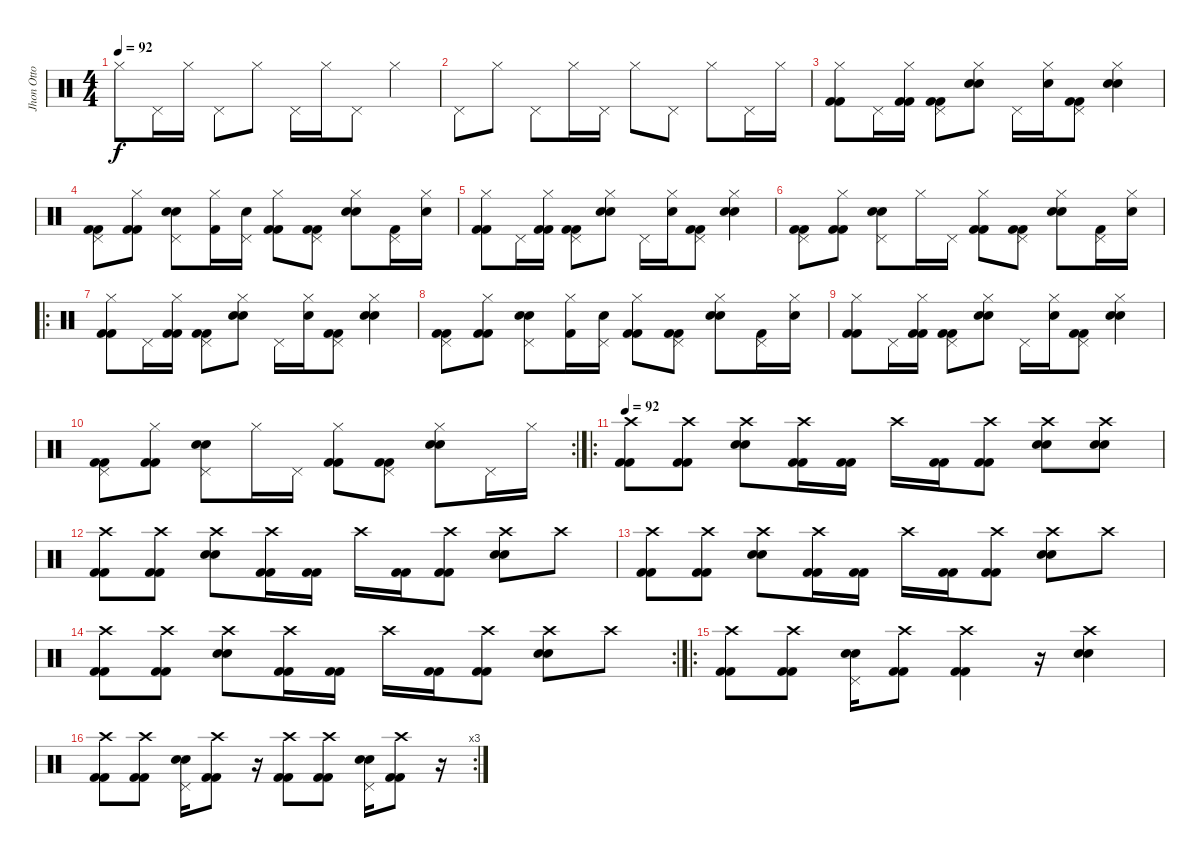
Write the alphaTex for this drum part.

\track ("Jhon Otto" "Jhon Otto") {instrument percussion}
\staff {score}
\articulation defaults
\ts (4 4)
\tempo 92
\clef neutral
\ks c "Hi-Hat (closed)".8{dy f} "Pedal Hi-Hat (hit)".16 "Hi-Hat (closed)".16 "Pedal Hi-Hat (hit)".8 "Hi-Hat (closed)".8 "Pedal Hi-Hat (hit)".16 "Hi-Hat (closed)".16 "Pedal Hi-Hat (hit)".8 "Hi-Hat (closed)".4
|
"Pedal Hi-Hat (hit)".8 "Hi-Hat (closed)".8 "Pedal Hi-Hat (hit)".8 "Hi-Hat (closed)".16 "Pedal Hi-Hat (hit)".16 "Hi-Hat (closed)".8 "Pedal Hi-Hat (hit)".8 "Hi-Hat (closed)".8 "Pedal Hi-Hat (hit)".16 "Hi-Hat (closed)".16 |
("Hi-Hat (closed)" "Kick (hit) 2" "Kick (hit) 2").8 "Pedal Hi-Hat (hit)".16 ("Hi-Hat (closed)" "Kick (hit) 2" "Kick (hit) 2").16 ("Pedal Hi-Hat (hit)" "Kick (hit) 2" "Kick (hit) 2").8 ("Hi-Hat (closed)" "Electric Snare (hit)" "Electric Snare (hit)").8 "Pedal Hi-Hat (hit)".16 ("Hi-Hat (closed)" "Electric Snare (hit)").16 ("Pedal Hi-Hat (hit)" "Kick (hit) 2" "Kick (hit) 2").8 ("Hi-Hat (closed)" "Electric Snare (hit)" "Electric Snare (hit)").4 |
("Pedal Hi-Hat (hit)" "Kick (hit) 2" "Kick (hit) 2").8 ("Hi-Hat (closed)" "Kick (hit) 2" "Kick (hit) 2").8 ("Pedal Hi-Hat (hit)" "Electric Snare (hit)" "Electric Snare (hit)").8 ("Hi-Hat (closed)" "Kick (hit) 2").16 ("Pedal Hi-Hat (hit)" "Electric Snare (hit)").16 ("Hi-Hat (closed)" "Kick (hit) 2" "Kick (hit) 2").8 ("Pedal Hi-Hat (hit)" "Kick (hit) 2" "Kick (hit) 2").8 ("Hi-Hat (closed)" "Electric Snare (hit)" "Electric Snare (hit)").8 ("Pedal Hi-Hat (hit)" "Kick (hit) 2").16 ("Hi-Hat (closed)" "Electric Snare (hit)").16 |
("Hi-Hat (closed)" "Kick (hit) 2" "Kick (hit) 2").8 "Pedal Hi-Hat (hit)".16 ("Hi-Hat (closed)" "Kick (hit) 2" "Kick (hit) 2").16 ("Pedal Hi-Hat (hit)" "Kick (hit) 2" "Kick (hit) 2").8 ("Hi-Hat (closed)" "Electric Snare (hit)" "Electric Snare (hit)").8 "Pedal Hi-Hat (hit)".16 ("Hi-Hat (closed)" "Electric Snare (hit)").16 ("Pedal Hi-Hat (hit)" "Kick (hit) 2" "Kick (hit) 2").8 ("Hi-Hat (closed)" "Electric Snare (hit)" "Electric Snare (hit)").4 |
("Pedal Hi-Hat (hit)" "Kick (hit) 2" "Kick (hit) 2").8 ("Hi-Hat (closed)" "Kick (hit) 2" "Kick (hit) 2").8 ("Pedal Hi-Hat (hit)" "Electric Snare (hit)" "Electric Snare (hit)").8 "Hi-Hat (closed)".16 "Pedal Hi-Hat (hit)".16 ("Hi-Hat (closed)" "Kick (hit) 2" "Kick (hit) 2").8 ("Pedal Hi-Hat (hit)" "Kick (hit) 2" "Kick (hit) 2").8 ("Hi-Hat (closed)" "Electric Snare (hit)" "Electric Snare (hit)").8 ("Pedal Hi-Hat (hit)" "Kick (hit) 2").16 ("Hi-Hat (closed)" "Electric Snare (hit)").16 |
\ro
("Hi-Hat (closed)" "Kick (hit) 2" "Kick (hit) 2").8 "Pedal Hi-Hat (hit)".16 ("Hi-Hat (closed)" "Kick (hit) 2" "Kick (hit) 2").16 ("Pedal Hi-Hat (hit)" "Kick (hit) 2" "Kick (hit) 2").8 ("Hi-Hat (closed)" "Electric Snare (hit)" "Electric Snare (hit)").8 "Pedal Hi-Hat (hit)".16 ("Hi-Hat (closed)" "Electric Snare (hit)").16 ("Pedal Hi-Hat (hit)" "Kick (hit) 2" "Kick (hit) 2").8 ("Hi-Hat (closed)" "Electric Snare (hit)" "Electric Snare (hit)").4 |
("Pedal Hi-Hat (hit)" "Kick (hit) 2" "Kick (hit) 2").8 ("Hi-Hat (closed)" "Kick (hit) 2" "Kick (hit) 2").8 ("Pedal Hi-Hat (hit)" "Electric Snare (hit)" "Electric Snare (hit)").8 ("Hi-Hat (closed)" "Kick (hit) 2").16 ("Pedal Hi-Hat (hit)" "Electric Snare (hit)").16 ("Hi-Hat (closed)" "Kick (hit) 2" "Kick (hit) 2").8 ("Pedal Hi-Hat (hit)" "Kick (hit) 2" "Kick (hit) 2").8 ("Hi-Hat (closed)" "Electric Snare (hit)" "Electric Snare (hit)").8 ("Pedal Hi-Hat (hit)" "Kick (hit) 2").16 ("Hi-Hat (closed)" "Electric Snare (hit)").16 |
("Hi-Hat (closed)" "Kick (hit) 2" "Kick (hit) 2").8 "Pedal Hi-Hat (hit)".16 ("Hi-Hat (closed)" "Kick (hit) 2" "Kick (hit) 2").16 ("Pedal Hi-Hat (hit)" "Kick (hit) 2" "Kick (hit) 2").8 ("Hi-Hat (closed)" "Electric Snare (hit)" "Electric Snare (hit)").8 "Pedal Hi-Hat (hit)".16 ("Hi-Hat (closed)" "Electric Snare (hit)").16 ("Pedal Hi-Hat (hit)" "Kick (hit) 2" "Kick (hit) 2").8 ("Hi-Hat (closed)" "Electric Snare (hit)" "Electric Snare (hit)").4 |
\rc 2
("Pedal Hi-Hat (hit)" "Kick (hit) 2" "Kick (hit) 2").8 ("Hi-Hat (closed)" "Kick (hit) 2" "Kick (hit) 2").8 ("Pedal Hi-Hat (hit)" "Electric Snare (hit)" "Electric Snare (hit)").8 "Hi-Hat (closed)".16 "Pedal Hi-Hat (hit)".16 ("Hi-Hat (closed)" "Kick (hit) 2" "Kick (hit) 2").8 ("Pedal Hi-Hat (hit)" "Kick (hit) 2" "Kick (hit) 2").8 ("Hi-Hat (closed)" "Electric Snare (hit)" "Electric Snare (hit)").8 "Pedal Hi-Hat (hit)".16 "Hi-Hat (closed)".16 |
\ro
\tempo 92
("Crash high (hit)" "Kick (hit) 2" "Kick (hit) 2").8 ("Crash high (hit)" "Kick (hit) 2" "Kick (hit) 2").8 ("Crash high (hit)" "Electric Snare (hit)" "Electric Snare (hit)").8 ("Crash high (hit)" "Kick (hit) 2" "Kick (hit) 2").16 ("Kick (hit) 2" "Kick (hit) 2").16 "Crash high (hit)".16 ("Kick (hit) 2" "Kick (hit) 2").16 ("Crash high (hit)" "Kick (hit) 2" "Kick (hit) 2").8 ("Crash high (hit)" "Electric Snare (hit)" "Electric Snare (hit)").8 ("Crash high (hit)" "Electric Snare (hit)" "Electric Snare (hit)").8 |
("Crash high (hit)" "Kick (hit) 2" "Kick (hit) 2").8 ("Crash high (hit)" "Kick (hit) 2" "Kick (hit) 2").8 ("Crash high (hit)" "Electric Snare (hit)" "Electric Snare (hit)").8 ("Crash high (hit)" "Kick (hit) 2" "Kick (hit) 2").16 ("Kick (hit) 2" "Kick (hit) 2").16 "Crash high (hit)".16 ("Kick (hit) 2" "Kick (hit) 2").16 ("Crash high (hit)" "Kick (hit) 2" "Kick (hit) 2").8 ("Crash high (hit)" "Electric Snare (hit)" "Electric Snare (hit)").8 "Crash high (hit)".8 |
("Crash high (hit)" "Kick (hit) 2" "Kick (hit) 2").8 ("Crash high (hit)" "Kick (hit) 2" "Kick (hit) 2").8 ("Crash high (hit)" "Electric Snare (hit)" "Electric Snare (hit)").8 ("Crash high (hit)" "Kick (hit) 2" "Kick (hit) 2").16 ("Kick (hit) 2" "Kick (hit) 2").16 "Crash high (hit)".16 ("Kick (hit) 2" "Kick (hit) 2").16 ("Crash high (hit)" "Kick (hit) 2" "Kick (hit) 2").8 ("Crash high (hit)" "Electric Snare (hit)" "Electric Snare (hit)").8 "Crash high (hit)".8 |
\rc 2
("Crash high (hit)" "Kick (hit) 2" "Kick (hit) 2").8 ("Crash high (hit)" "Kick (hit) 2" "Kick (hit) 2").8 ("Crash high (hit)" "Electric Snare (hit)" "Electric Snare (hit)").8 ("Crash high (hit)" "Kick (hit) 2" "Kick (hit) 2").16 ("Kick (hit) 2" "Kick (hit) 2").16 "Crash high (hit)".16 ("Kick (hit) 2" "Kick (hit) 2").16 ("Crash high (hit)" "Kick (hit) 2" "Kick (hit) 2").8 ("Crash high (hit)" "Electric Snare (hit)" "Electric Snare (hit)").8 "Crash high (hit)".8 |
\ro
("Crash high (hit)" "Kick (hit) 2" "Kick (hit) 2").8 ("Crash high (hit)" "Kick (hit) 2" "Kick (hit) 2").8 ("Pedal Hi-Hat (hit)" "Electric Snare (hit)" "Electric Snare (hit)").16 ("Crash high (hit)" "Kick (hit) 2" "Kick (hit) 2").8 ("Crash high (hit)" "Kick (hit) 2" "Kick (hit) 2").4 r.16 ("Crash high (hit)" "Electric Snare (hit)" "Electric Snare (hit)").4 |
\rc 3
("Crash high (hit)" "Kick (hit) 2" "Kick (hit) 2").8 ("Crash high (hit)" "Kick (hit) 2" "Kick (hit) 2").8 ("Pedal Hi-Hat (hit)" "Electric Snare (hit)" "Electric Snare (hit)").16 ("Crash high (hit)" "Kick (hit) 2" "Kick (hit) 2").8 r.16 ("Crash high (hit)" "Kick (hit) 2" "Kick (hit) 2").8 ("Crash high (hit)" "Kick (hit) 2" "Kick (hit) 2").8 ("Pedal Hi-Hat (hit)" "Electric Snare (hit)" "Electric Snare (hit)").16 ("Crash high (hit)" "Kick (hit) 2" "Kick (hit) 2").8 r.16
